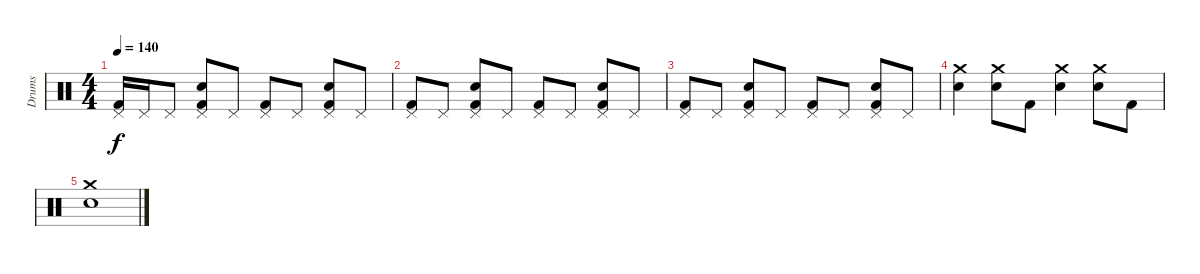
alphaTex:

\track ("Drums" "Drums") {instrument percussion}
\staff {score}
\articulation defaults
\ts (4 4)
\tempo 140
\clef neutral
\ks c
("Pedal Hi-Hat (hit)" "Kick (hit) 2").16{dy f} "Pedal Hi-Hat (hit)".16 "Pedal Hi-Hat (hit)".8 ("Pedal Hi-Hat (hit)" "Electric Snare (hit)" "Kick (hit) 2").8 "Pedal Hi-Hat (hit)".8 ("Pedal Hi-Hat (hit)" "Kick (hit) 2").8 "Pedal Hi-Hat (hit)".8 ("Pedal Hi-Hat (hit)" "Electric Snare (hit)" "Kick (hit) 2").8 "Pedal Hi-Hat (hit)".8 |
("Pedal Hi-Hat (hit)" "Kick (hit) 2").8 "Pedal Hi-Hat (hit)".8 ("Pedal Hi-Hat (hit)" "Electric Snare (hit)" "Kick (hit) 2").8 "Pedal Hi-Hat (hit)".8 ("Pedal Hi-Hat (hit)" "Kick (hit) 2").8 "Pedal Hi-Hat (hit)".8 ("Pedal Hi-Hat (hit)" "Electric Snare (hit)" "Kick (hit) 2").8 "Pedal Hi-Hat (hit)".8 |
("Pedal Hi-Hat (hit)" "Kick (hit) 2").8 "Pedal Hi-Hat (hit)".8 ("Pedal Hi-Hat (hit)" "Electric Snare (hit)" "Kick (hit) 2").8 "Pedal Hi-Hat (hit)".8 ("Pedal Hi-Hat (hit)" "Kick (hit) 2").8 "Pedal Hi-Hat (hit)".8 ("Pedal Hi-Hat (hit)" "Electric Snare (hit)" "Kick (hit) 2").8 "Pedal Hi-Hat (hit)".8 |
("Crash medium (hit)" "Electric Snare (hit)").4 ("Crash medium (hit)" "Electric Snare (hit)").8 "Kick (hit) 2".8 ("Crash medium (hit)" "Electric Snare (hit)").4 ("Crash medium (hit)" "Electric Snare (hit)").8 "Kick (hit) 2".8 |
("Crash medium (hit)" "Electric Snare (hit)").1
